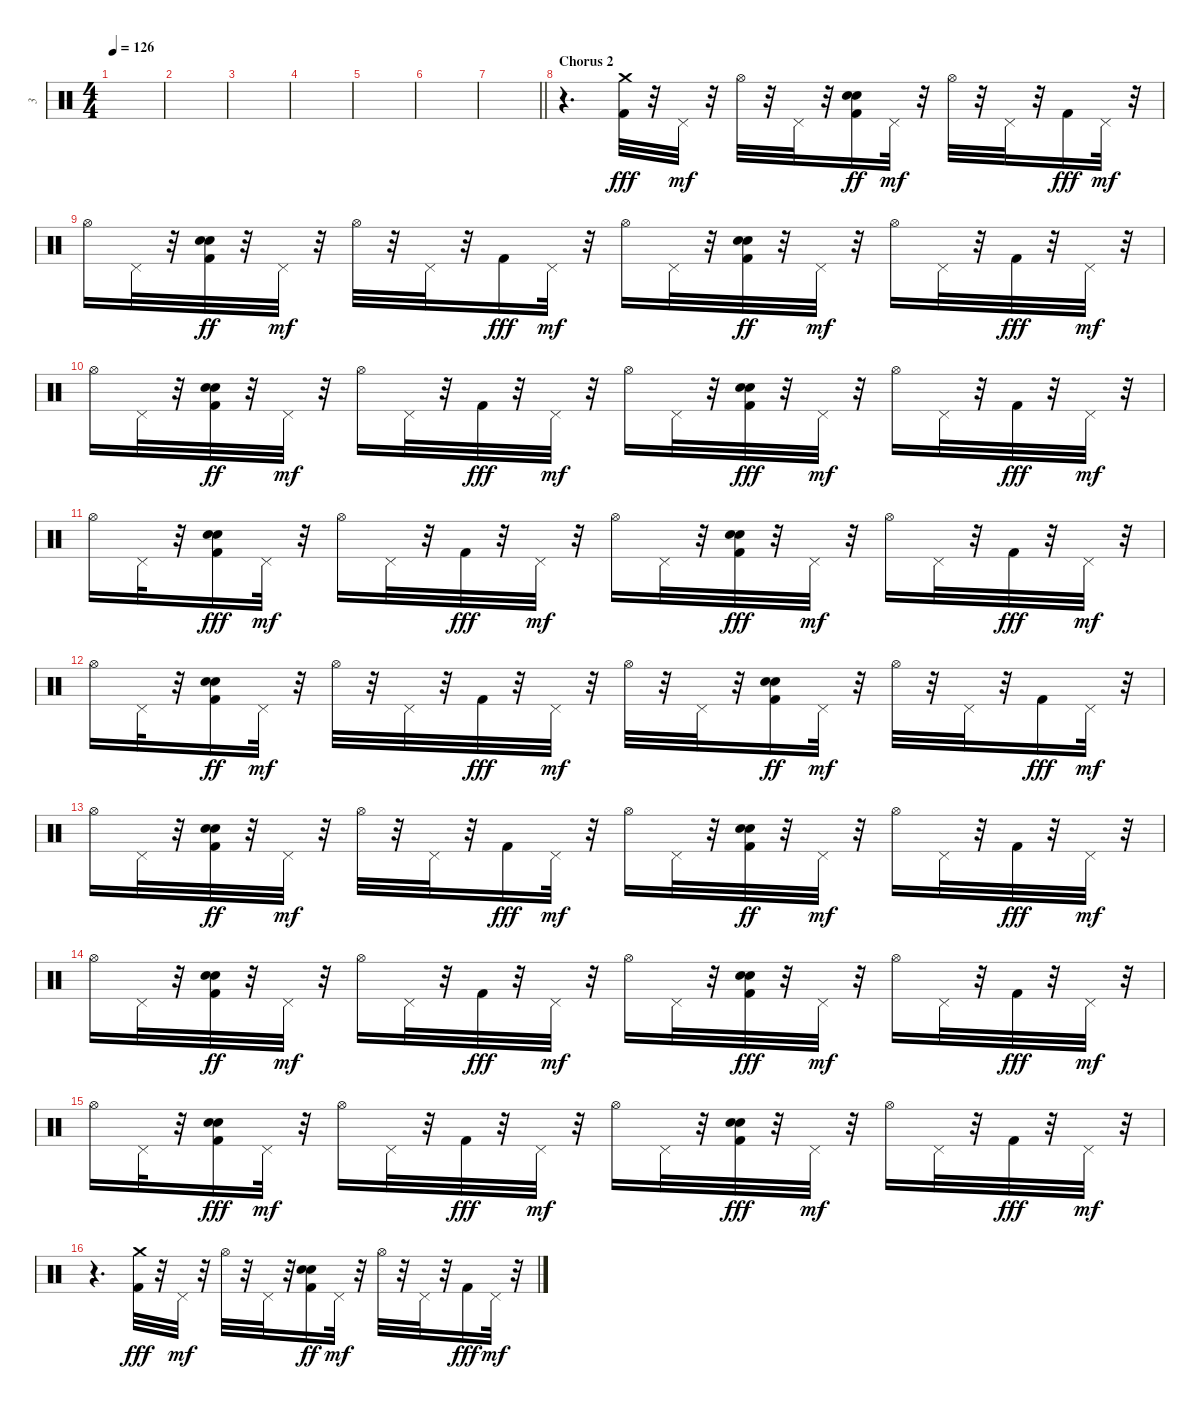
\track ("3" "3") {instrument percussion}
\staff {score}
\articulation defaults
\ts (4 4)
\tempo 126
\clef neutral
\ks c
|
|
|
|
|
|
\barLineRight lightlight
|
\section ("" "Chorus 2")
r.4{d} ("Kick (hit) 2" "Crash medium (hit)").32{dy fff} r.32 "Pedal Hi-Hat (hit)".32{dy mf} r.32 "Hi-Hat (open)".32 r.32 "Pedal Hi-Hat (hit)".32 r.32 ("Kick (hit) 2" "Snare (hit) 2" "Hand Clap (hit)").16{dy ff} "Pedal Hi-Hat (hit)".32{dy mf} r.32 "Hi-Hat (open)".32 r.32 "Pedal Hi-Hat (hit)".32 r.32 "Kick (hit) 2".16{dy fff} "Pedal Hi-Hat (hit)".32{dy mf} r.32 |
"Hi-Hat (open)".16 "Pedal Hi-Hat (hit)".32 r.32 ("Kick (hit) 2" "Snare (hit) 2" "Hand Clap (hit)").32{dy ff} r.32 "Pedal Hi-Hat (hit)".32{dy mf} r.32 "Hi-Hat (open)".32 r.32 "Pedal Hi-Hat (hit)".32 r.32 "Kick (hit) 2".16{dy fff} "Pedal Hi-Hat (hit)".32{dy mf} r.32 "Hi-Hat (open)".16 "Pedal Hi-Hat (hit)".32 r.32 ("Kick (hit) 2" "Snare (hit) 2" "Hand Clap (hit)").32{dy ff} r.32 "Pedal Hi-Hat (hit)".32{dy mf} r.32 "Hi-Hat (open)".16 "Pedal Hi-Hat (hit)".32 r.32 "Kick (hit) 2".32{dy fff} r.32 "Pedal Hi-Hat (hit)".32{dy mf} r.32 |
"Hi-Hat (open)".16 "Pedal Hi-Hat (hit)".32 r.32 ("Kick (hit) 2" "Snare (hit) 2" "Hand Clap (hit)").32{dy ff} r.32 "Pedal Hi-Hat (hit)".32{dy mf} r.32 "Hi-Hat (open)".16 "Pedal Hi-Hat (hit)".32 r.32 "Kick (hit) 2".32{dy fff} r.32 "Pedal Hi-Hat (hit)".32{dy mf} r.32 "Hi-Hat (open)".16 "Pedal Hi-Hat (hit)".32 r.32 ("Kick (hit) 2" "Snare (hit) 2" "Hand Clap (hit)").32{dy fff} r.32 "Pedal Hi-Hat (hit)".32{dy mf} r.32 "Hi-Hat (open)".16 "Pedal Hi-Hat (hit)".32 r.32 "Kick (hit) 2".32{dy fff} r.32 "Pedal Hi-Hat (hit)".32{dy mf} r.32 |
"Hi-Hat (open)".16 "Pedal Hi-Hat (hit)".32 r.32 ("Kick (hit) 2" "Snare (hit) 2" "Hand Clap (hit)").16{dy fff} "Pedal Hi-Hat (hit)".32{dy mf} r.32 "Hi-Hat (open)".16 "Pedal Hi-Hat (hit)".32 r.32 "Kick (hit) 2".32{dy fff} r.32 "Pedal Hi-Hat (hit)".32{dy mf} r.32 "Hi-Hat (open)".16 "Pedal Hi-Hat (hit)".32 r.32 ("Kick (hit) 2" "Snare (hit) 2" "Hand Clap (hit)").32{dy fff} r.32 "Pedal Hi-Hat (hit)".32{dy mf} r.32 "Hi-Hat (open)".16 "Pedal Hi-Hat (hit)".32 r.32 "Kick (hit) 2".32{dy fff} r.32 "Pedal Hi-Hat (hit)".32{dy mf} r.32 |
"Hi-Hat (open)".16 "Pedal Hi-Hat (hit)".32 r.32 ("Kick (hit) 2" "Snare (hit) 2" "Hand Clap (hit)").16{dy ff} "Pedal Hi-Hat (hit)".32{dy mf} r.32 "Hi-Hat (open)".32 r.32 "Pedal Hi-Hat (hit)".32 r.32 "Kick (hit) 2".32{dy fff} r.32 "Pedal Hi-Hat (hit)".32{dy mf} r.32 "Hi-Hat (open)".32 r.32 "Pedal Hi-Hat (hit)".32 r.32 ("Kick (hit) 2" "Snare (hit) 2" "Hand Clap (hit)").16{dy ff} "Pedal Hi-Hat (hit)".32{dy mf} r.32 "Hi-Hat (open)".32 r.32 "Pedal Hi-Hat (hit)".32 r.32 "Kick (hit) 2".16{dy fff} "Pedal Hi-Hat (hit)".32{dy mf} r.32 |
"Hi-Hat (open)".16 "Pedal Hi-Hat (hit)".32 r.32 ("Kick (hit) 2" "Snare (hit) 2" "Hand Clap (hit)").32{dy ff} r.32 "Pedal Hi-Hat (hit)".32{dy mf} r.32 "Hi-Hat (open)".32 r.32 "Pedal Hi-Hat (hit)".32 r.32 "Kick (hit) 2".16{dy fff} "Pedal Hi-Hat (hit)".32{dy mf} r.32 "Hi-Hat (open)".16 "Pedal Hi-Hat (hit)".32 r.32 ("Kick (hit) 2" "Snare (hit) 2" "Hand Clap (hit)").32{dy ff} r.32 "Pedal Hi-Hat (hit)".32{dy mf} r.32 "Hi-Hat (open)".16 "Pedal Hi-Hat (hit)".32 r.32 "Kick (hit) 2".32{dy fff} r.32 "Pedal Hi-Hat (hit)".32{dy mf} r.32 |
"Hi-Hat (open)".16 "Pedal Hi-Hat (hit)".32 r.32 ("Kick (hit) 2" "Snare (hit) 2" "Hand Clap (hit)").32{dy ff} r.32 "Pedal Hi-Hat (hit)".32{dy mf} r.32 "Hi-Hat (open)".16 "Pedal Hi-Hat (hit)".32 r.32 "Kick (hit) 2".32{dy fff} r.32 "Pedal Hi-Hat (hit)".32{dy mf} r.32 "Hi-Hat (open)".16 "Pedal Hi-Hat (hit)".32 r.32 ("Kick (hit) 2" "Snare (hit) 2" "Hand Clap (hit)").32{dy fff} r.32 "Pedal Hi-Hat (hit)".32{dy mf} r.32 "Hi-Hat (open)".16 "Pedal Hi-Hat (hit)".32 r.32 "Kick (hit) 2".32{dy fff} r.32 "Pedal Hi-Hat (hit)".32{dy mf} r.32 |
"Hi-Hat (open)".16 "Pedal Hi-Hat (hit)".32 r.32 ("Kick (hit) 2" "Snare (hit) 2" "Hand Clap (hit)").16{dy fff} "Pedal Hi-Hat (hit)".32{dy mf} r.32 "Hi-Hat (open)".16 "Pedal Hi-Hat (hit)".32 r.32 "Kick (hit) 2".32{dy fff} r.32 "Pedal Hi-Hat (hit)".32{dy mf} r.32 "Hi-Hat (open)".16 "Pedal Hi-Hat (hit)".32 r.32 ("Kick (hit) 2" "Snare (hit) 2" "Hand Clap (hit)").32{dy fff} r.32 "Pedal Hi-Hat (hit)".32{dy mf} r.32 "Hi-Hat (open)".16 "Pedal Hi-Hat (hit)".32 r.32 "Kick (hit) 2".32{dy fff} r.32 "Pedal Hi-Hat (hit)".32{dy mf} r.32 |
r.4{d} ("Kick (hit) 2" "Crash medium (hit)").32{dy fff} r.32 "Pedal Hi-Hat (hit)".32{dy mf} r.32 "Hi-Hat (open)".32 r.32 "Pedal Hi-Hat (hit)".32 r.32 ("Kick (hit) 2" "Snare (hit) 2" "Hand Clap (hit)").16{dy ff} "Pedal Hi-Hat (hit)".32{dy mf} r.32 "Hi-Hat (open)".32 r.32 "Pedal Hi-Hat (hit)".32 r.32 "Kick (hit) 2".16{dy fff} "Pedal Hi-Hat (hit)".32{dy mf} r.32
